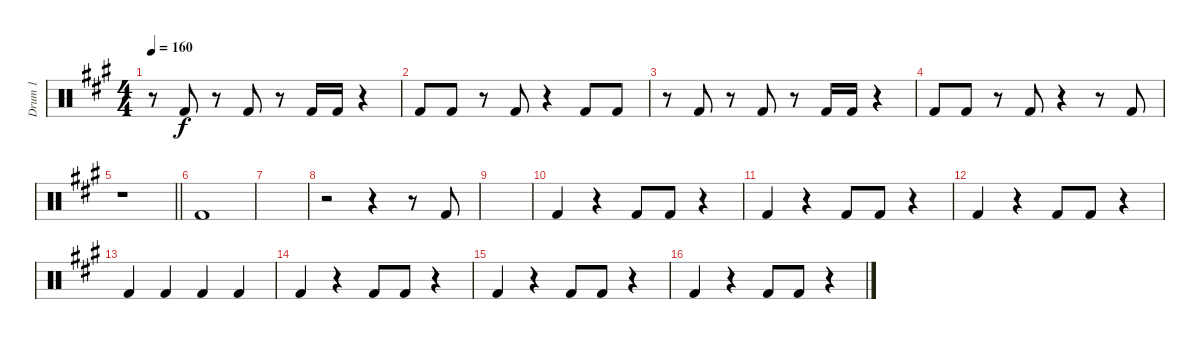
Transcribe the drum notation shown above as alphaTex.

\track ("Drum 1" "Drum 1") {instrument percussion}
\staff {score}
\articulation defaults
\ts (4 4)
\tempo 160
\clef neutral
\ks a
r.8{dy f} "Kick (hit) 2".8 r.8 "Kick (hit) 2".8 r.8 "Kick (hit) 2".16 "Kick (hit) 2".16 r.4 |
"Kick (hit) 2".8 "Kick (hit) 2".8 r.8 "Kick (hit) 2".8 r.4 "Kick (hit) 2".8 "Kick (hit) 2".8 |
r.8 "Kick (hit) 2".8 r.8 "Kick (hit) 2".8 r.8 "Kick (hit) 2".16 "Kick (hit) 2".16 r.4 |
"Kick (hit) 2".8 "Kick (hit) 2".8 r.8 "Kick (hit) 2".8 r.4 r.8 "Kick (hit) 2".8 |
\barLineRight lightlight
r.1 |
"Kick (hit) 2".1 |
|
r.2 r.4 r.8 "Kick (hit) 2".8 |
|
"Kick (hit) 2".4 r.4 "Kick (hit) 2".8 "Kick (hit) 2".8 r.4 |
"Kick (hit) 2".4 r.4 "Kick (hit) 2".8 "Kick (hit) 2".8 r.4 |
"Kick (hit) 2".4 r.4 "Kick (hit) 2".8 "Kick (hit) 2".8 r.4 |
"Kick (hit) 2".4 "Kick (hit) 2".4 "Kick (hit) 2".4 "Kick (hit) 2".4 |
"Kick (hit) 2".4 r.4 "Kick (hit) 2".8 "Kick (hit) 2".8 r.4 |
"Kick (hit) 2".4 r.4 "Kick (hit) 2".8 "Kick (hit) 2".8 r.4 |
"Kick (hit) 2".4 r.4 "Kick (hit) 2".8 "Kick (hit) 2".8 r.4
